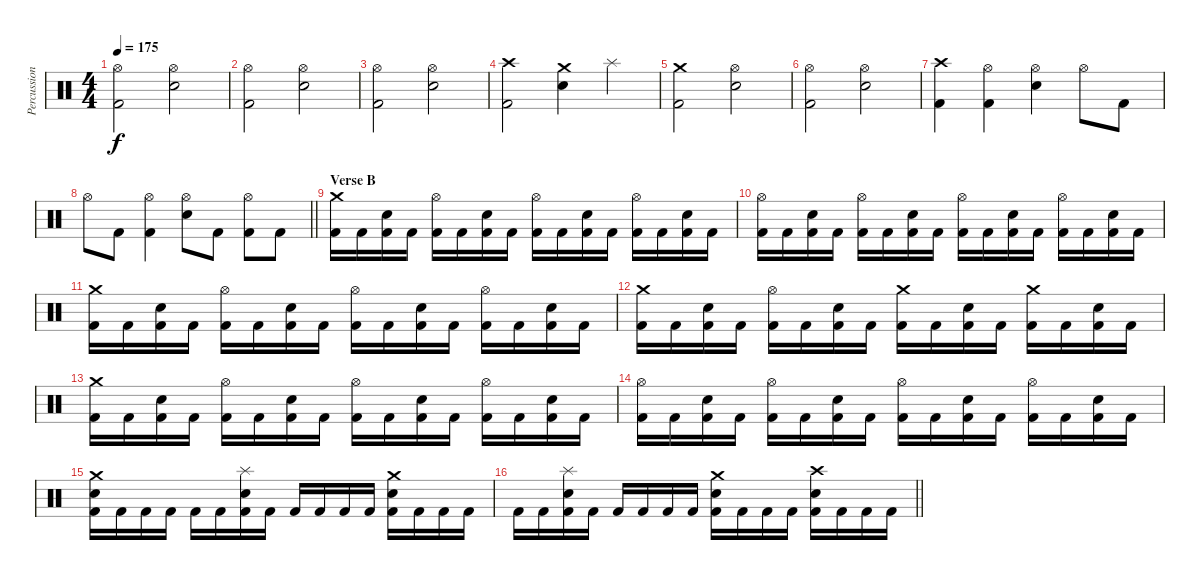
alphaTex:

\track ("Percussion" "Percussion") {instrument percussion}
\staff {score}
\articulation defaults
\ts (4 4)
\tempo 175
\clef neutral
\ks c
("Hi-Hat (open)" "Kick (hit) 2").2{dy f} ("Hi-Hat (open)" "Electric Snare (hit)").2 |
("Hi-Hat (open)" "Kick (hit) 2").2 ("Hi-Hat (open)" "Electric Snare (hit)").2 |
("Hi-Hat (open)" "Kick (hit) 2").2 ("Hi-Hat (open)" "Electric Snare (hit)").2 |
("Crash high (hit)" "Kick (hit) 2").2 ("Crash medium (hit)" "Electric Snare (hit)").4 "Splash (hit)".4 |
("Crash medium (hit)" "Kick (hit) 2").2 ("Hi-Hat (open)" "Electric Snare (hit)").2 |
("Hi-Hat (open)" "Kick (hit) 2").2 ("Hi-Hat (open)" "Electric Snare (hit)").2 |
("Crash high (hit)" "Kick (hit) 2").4 ("Hi-Hat (open)" "Kick (hit) 2").4 ("Hi-Hat (open)" "Electric Snare (hit)").4 "Hi-Hat (open)".8 "Kick (hit) 2".8 |
\barLineRight lightlight "Hi-Hat (open)".8 "Kick (hit) 2".8
("Hi-Hat (open)" "Kick (hit) 2").4 ("Hi-Hat (open)" "Electric Snare (hit)").8 "Kick (hit) 2".8 ("Hi-Hat (open)" "Kick (hit) 2").8 "Kick (hit) 2".8 |
\section ("" "Verse B")
("Crash medium (hit)" "Kick (hit) 2").16 "Kick (hit) 2".16 ("Electric Snare (hit)" "Kick (hit) 2").16 "Kick (hit) 2".16 ("Hi-Hat (open)" "Kick (hit) 2").16 "Kick (hit) 2".16 ("Electric Snare (hit)" "Kick (hit) 2").16 "Kick (hit) 2".16 ("Hi-Hat (open)" "Kick (hit) 2").16 "Kick (hit) 2".16 ("Electric Snare (hit)" "Kick (hit) 2").16 "Kick (hit) 2".16 ("Hi-Hat (open)" "Kick (hit) 2").16 "Kick (hit) 2".16 ("Electric Snare (hit)" "Kick (hit) 2").16 "Kick (hit) 2".16 |
("Hi-Hat (open)" "Kick (hit) 2").16 "Kick (hit) 2".16 ("Electric Snare (hit)" "Kick (hit) 2").16 "Kick (hit) 2".16 ("Hi-Hat (open)" "Kick (hit) 2").16 "Kick (hit) 2".16 ("Electric Snare (hit)" "Kick (hit) 2").16 "Kick (hit) 2".16 ("Hi-Hat (open)" "Kick (hit) 2").16 "Kick (hit) 2".16 ("Electric Snare (hit)" "Kick (hit) 2").16 "Kick (hit) 2".16 ("Hi-Hat (open)" "Kick (hit) 2").16 "Kick (hit) 2".16 ("Electric Snare (hit)" "Kick (hit) 2").16 "Kick (hit) 2".16 |
("Crash medium (hit)" "Kick (hit) 2").16 "Kick (hit) 2".16 ("Electric Snare (hit)" "Kick (hit) 2").16 "Kick (hit) 2".16 ("Hi-Hat (open)" "Kick (hit) 2").16 "Kick (hit) 2".16 ("Electric Snare (hit)" "Kick (hit) 2").16 "Kick (hit) 2".16 ("Hi-Hat (open)" "Kick (hit) 2").16 "Kick (hit) 2".16 ("Electric Snare (hit)" "Kick (hit) 2").16 "Kick (hit) 2".16 ("Hi-Hat (open)" "Kick (hit) 2").16 "Kick (hit) 2".16 ("Electric Snare (hit)" "Kick (hit) 2").16 "Kick (hit) 2".16 |
("Crash medium (hit)" "Kick (hit) 2").16 "Kick (hit) 2".16 ("Electric Snare (hit)" "Kick (hit) 2").16 "Kick (hit) 2".16 ("Hi-Hat (open)" "Kick (hit) 2").16 "Kick (hit) 2".16 ("Electric Snare (hit)" "Kick (hit) 2").16 "Kick (hit) 2".16 ("Crash medium (hit)" "Kick (hit) 2").16 "Kick (hit) 2".16 ("Electric Snare (hit)" "Kick (hit) 2").16 "Kick (hit) 2".16 ("Crash medium (hit)" "Kick (hit) 2").16 "Kick (hit) 2".16 ("Electric Snare (hit)" "Kick (hit) 2").16 "Kick (hit) 2".16 |
("Crash medium (hit)" "Kick (hit) 2").16 "Kick (hit) 2".16 ("Electric Snare (hit)" "Kick (hit) 2").16 "Kick (hit) 2".16 ("Hi-Hat (open)" "Kick (hit) 2").16 "Kick (hit) 2".16 ("Electric Snare (hit)" "Kick (hit) 2").16 "Kick (hit) 2".16 ("Hi-Hat (open)" "Kick (hit) 2").16 "Kick (hit) 2".16 ("Electric Snare (hit)" "Kick (hit) 2").16 "Kick (hit) 2".16 ("Hi-Hat (open)" "Kick (hit) 2").16 "Kick (hit) 2".16 ("Electric Snare (hit)" "Kick (hit) 2").16 "Kick (hit) 2".16 |
("Hi-Hat (open)" "Kick (hit) 2").16 "Kick (hit) 2".16 ("Electric Snare (hit)" "Kick (hit) 2").16 "Kick (hit) 2".16 ("Hi-Hat (open)" "Kick (hit) 2").16 "Kick (hit) 2".16 ("Electric Snare (hit)" "Kick (hit) 2").16 "Kick (hit) 2".16 ("Hi-Hat (open)" "Kick (hit) 2").16 "Kick (hit) 2".16 ("Electric Snare (hit)" "Kick (hit) 2").16 "Kick (hit) 2".16 ("Hi-Hat (open)" "Kick (hit) 2").16 "Kick (hit) 2".16 ("Electric Snare (hit)" "Kick (hit) 2").16 "Kick (hit) 2".16 |
("Crash medium (hit)" "Electric Snare (hit)" "Kick (hit) 2").16 "Kick (hit) 2".16 "Kick (hit) 2".16 "Kick (hit) 2".16 "Kick (hit) 2".16 "Kick (hit) 2".16 ("Splash (hit)" "Electric Snare (hit)" "Kick (hit) 2").16 "Kick (hit) 2".16 "Kick (hit) 2".16 "Kick (hit) 2".16 "Kick (hit) 2".16 "Kick (hit) 2".16 ("Crash medium (hit)" "Electric Snare (hit)" "Kick (hit) 2").16 "Kick (hit) 2".16 "Kick (hit) 2".16 "Kick (hit) 2".16 |
\barLineRight lightlight "Kick (hit) 2".16 "Kick (hit) 2".16
("Splash (hit)" "Electric Snare (hit)" "Kick (hit) 2").16 "Kick (hit) 2".16 "Kick (hit) 2".16 "Kick (hit) 2".16 "Kick (hit) 2".16 "Kick (hit) 2".16 ("Crash medium (hit)" "Electric Snare (hit)" "Kick (hit) 2").16 "Kick (hit) 2".16 "Kick (hit) 2".16 "Kick (hit) 2".16 ("Crash high (hit)" "Electric Snare (hit)" "Kick (hit) 2").16 "Kick (hit) 2".16 "Kick (hit) 2".16 "Kick (hit) 2".16
